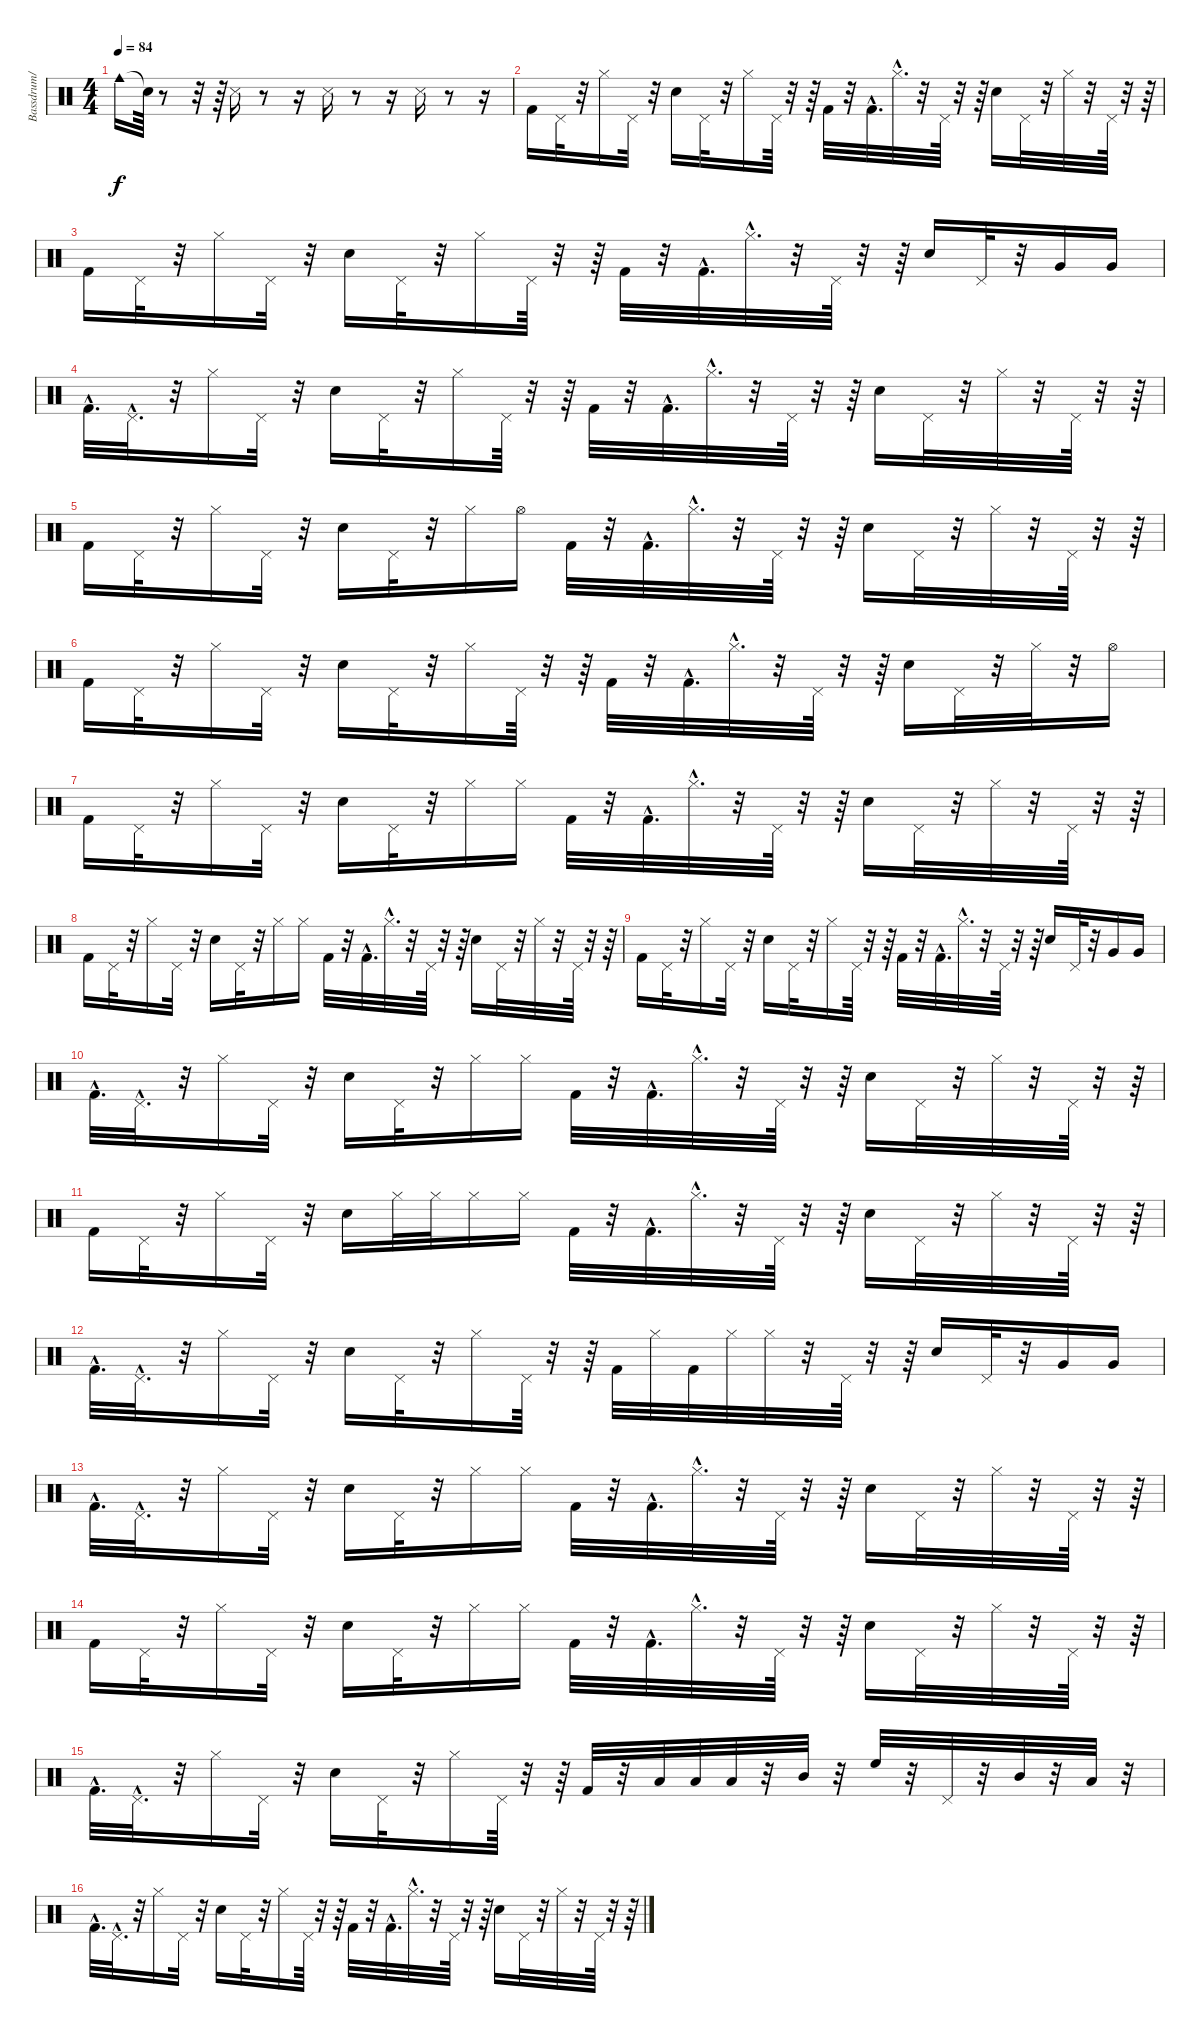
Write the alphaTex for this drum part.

\track ("Bassdrum/" "Bassdrum/") {instrument percussion}
\staff {score}
\articulation defaults
\ts (4 4)
\tempo 84
\clef neutral
\ks c "Cowbell medium (hit)".16{dy f} "Snare (hit)"{t}.64
r.8 r.32 r.64 "Snare (side stick) 3".16 r.8 r.16 "Snare (side stick) 3".16 r.8 r.16 "Snare (side stick) 3".16 r.8 r.16 |
"Kick (hit) 2".16 "Pedal Hi-Hat (hit)".32 r.32 "Hi-Hat (closed)".16 "Pedal Hi-Hat (hit)".32 r.32 "Snare (hit) 2".16 "Pedal Hi-Hat (hit)".32 r.32 "Hi-Hat (closed)".16 "Pedal Hi-Hat (hit)".64 r.32 r.64 "Kick (hit) 2".32 r.32 "Kick (hit) 2"{hac}.32{d} "Hi-Hat (closed)"{hac}.32{d} r.32 "Pedal Hi-Hat (hit)".64 r.32 r.64 "Snare (hit) 2".16 "Pedal Hi-Hat (hit)".32 r.32 "Hi-Hat (closed)".32 r.32 "Pedal Hi-Hat (hit)".64 r.32 r.64 |
"Kick (hit) 2".16 "Pedal Hi-Hat (hit)".32 r.32 "Hi-Hat (closed)".16 "Pedal Hi-Hat (hit)".32 r.32 "Snare (hit) 2".16 "Pedal Hi-Hat (hit)".32 r.32 "Hi-Hat (closed)".16 "Pedal Hi-Hat (hit)".64 r.32 r.64 "Kick (hit) 2".32 r.32 "Kick (hit) 2"{hac}.32{d} "Hi-Hat (closed)"{hac}.32{d} r.32 "Pedal Hi-Hat (hit)".64 r.32 r.64 "Snare (hit) 2".16 "Pedal Hi-Hat (hit)".32 r.32 "Very Low Tom (hit)".16 "Very Low Tom (hit)".16 |
"Kick (hit) 2"{hac}.32{d} "Pedal Hi-Hat (hit)"{hac}.32{d} r.32 "Hi-Hat (closed)".16 "Pedal Hi-Hat (hit)".32 r.32 "Snare (hit) 2".16 "Pedal Hi-Hat (hit)".32 r.32 "Hi-Hat (closed)".16 "Pedal Hi-Hat (hit)".64 r.32 r.64 "Kick (hit) 2".32 r.32 "Kick (hit) 2"{hac}.32{d} "Hi-Hat (closed)"{hac}.32{d} r.32 "Pedal Hi-Hat (hit)".64 r.32 r.64 "Snare (hit) 2".16 "Pedal Hi-Hat (hit)".32 r.32 "Hi-Hat (closed)".32 r.32 "Pedal Hi-Hat (hit)".64 r.32 r.64 |
"Kick (hit) 2".16 "Pedal Hi-Hat (hit)".32 r.32 "Hi-Hat (closed)".16 "Pedal Hi-Hat (hit)".32 r.32 "Snare (hit) 2".16 "Pedal Hi-Hat (hit)".32 r.32 "Hi-Hat (closed)".16 "Hi-Hat (open)".16 "Kick (hit) 2".32 r.32 "Kick (hit) 2"{hac}.32{d} "Hi-Hat (closed)"{hac}.32{d} r.32 "Pedal Hi-Hat (hit)".64 r.32 r.64 "Snare (hit) 2".16 "Pedal Hi-Hat (hit)".32 r.32 "Hi-Hat (closed)".32 r.32 "Pedal Hi-Hat (hit)".64 r.32 r.64 |
"Kick (hit) 2".16 "Pedal Hi-Hat (hit)".32 r.32 "Hi-Hat (closed)".16 "Pedal Hi-Hat (hit)".32 r.32 "Snare (hit) 2".16 "Pedal Hi-Hat (hit)".32 r.32 "Hi-Hat (closed)".16 "Pedal Hi-Hat (hit)".64 r.32 r.64 "Kick (hit) 2".32 r.32 "Kick (hit) 2"{hac}.32{d} "Hi-Hat (closed)"{hac}.32{d} r.32 "Pedal Hi-Hat (hit)".64 r.32 r.64 "Snare (hit) 2".16 "Pedal Hi-Hat (hit)".32 r.32 "Hi-Hat (closed)".32 r.32 "Hi-Hat (open)".16 |
"Kick (hit) 2".16 "Pedal Hi-Hat (hit)".32 r.32 "Hi-Hat (closed)".16 "Pedal Hi-Hat (hit)".32 r.32 "Snare (hit) 2".16 "Pedal Hi-Hat (hit)".32 r.32 "Hi-Hat (closed)".16 "Hi-Hat (closed)".16 "Kick (hit) 2".32 r.32 "Kick (hit) 2"{hac}.32{d} "Hi-Hat (closed)"{hac}.32{d} r.32 "Pedal Hi-Hat (hit)".64 r.32 r.64 "Snare (hit) 2".16 "Pedal Hi-Hat (hit)".32 r.32 "Hi-Hat (closed)".32 r.32 "Pedal Hi-Hat (hit)".64 r.32 r.64 |
"Kick (hit) 2".16 "Pedal Hi-Hat (hit)".32 r.32 "Hi-Hat (closed)".16 "Pedal Hi-Hat (hit)".32 r.32 "Snare (hit) 2".16 "Pedal Hi-Hat (hit)".32 r.32 "Hi-Hat (closed)".16 "Hi-Hat (closed)".16 "Kick (hit) 2".32 r.32 "Kick (hit) 2"{hac}.32{d} "Hi-Hat (closed)"{hac}.32{d} r.32 "Pedal Hi-Hat (hit)".64 r.32 r.64 "Snare (hit) 2".16 "Pedal Hi-Hat (hit)".32 r.32 "Hi-Hat (closed)".32 r.32 "Pedal Hi-Hat (hit)".64 r.32 r.64 |
"Kick (hit) 2".16 "Pedal Hi-Hat (hit)".32 r.32 "Hi-Hat (closed)".16 "Pedal Hi-Hat (hit)".32 r.32 "Snare (hit) 2".16 "Pedal Hi-Hat (hit)".32 r.32 "Hi-Hat (closed)".16 "Pedal Hi-Hat (hit)".64 r.32 r.64 "Kick (hit) 2".32 r.32 "Kick (hit) 2"{hac}.32{d} "Hi-Hat (closed)"{hac}.32{d} r.32 "Pedal Hi-Hat (hit)".64 r.32 r.64 "Snare (hit) 2".16 "Pedal Hi-Hat (hit)".32 r.32 "Very Low Tom (hit)".16 "Very Low Tom (hit)".16 |
"Kick (hit) 2"{hac}.32{d} "Pedal Hi-Hat (hit)"{hac}.32{d} r.32 "Hi-Hat (closed)".16 "Pedal Hi-Hat (hit)".32 r.32 "Snare (hit) 2".16 "Pedal Hi-Hat (hit)".32 r.32 "Hi-Hat (closed)".16 "Hi-Hat (closed)".16 "Kick (hit) 2".32 r.32 "Kick (hit) 2"{hac}.32{d} "Hi-Hat (closed)"{hac}.32{d} r.32 "Pedal Hi-Hat (hit)".64 r.32 r.64 "Snare (hit) 2".16 "Pedal Hi-Hat (hit)".32 r.32 "Hi-Hat (closed)".32 r.32 "Pedal Hi-Hat (hit)".64 r.32 r.64 |
"Kick (hit) 2".16 "Pedal Hi-Hat (hit)".32 r.32 "Hi-Hat (closed)".16 "Pedal Hi-Hat (hit)".32 r.32 "Snare (hit) 2".16 "Hi-Hat (closed)".32 "Hi-Hat (closed)".32 "Hi-Hat (closed)".16 "Hi-Hat (closed)".16 "Kick (hit) 2".32 r.32 "Kick (hit) 2"{hac}.32{d} "Hi-Hat (closed)"{hac}.32{d} r.32 "Pedal Hi-Hat (hit)".64 r.32 r.64 "Snare (hit) 2".16 "Pedal Hi-Hat (hit)".32 r.32 "Hi-Hat (closed)".32 r.32 "Pedal Hi-Hat (hit)".64 r.32 r.64 |
"Kick (hit) 2"{hac}.32{d} "Pedal Hi-Hat (hit)"{hac}.32{d} r.32 "Hi-Hat (closed)".16 "Pedal Hi-Hat (hit)".32 r.32 "Snare (hit) 2".16 "Pedal Hi-Hat (hit)".32 r.32 "Hi-Hat (closed)".16 "Pedal Hi-Hat (hit)".64 r.32 r.64 "Kick (hit) 2".32 "Hi-Hat (closed)".32 "Kick (hit) 2".32 "Hi-Hat (closed)".32 "Hi-Hat (closed)".32 r.32 "Pedal Hi-Hat (hit)".64 r.32 r.64 "Snare (hit) 2".16 "Pedal Hi-Hat (hit)".32 r.32 "Very Low Tom (hit)".16 "Very Low Tom (hit)".16 |
"Kick (hit) 2"{hac}.32{d} "Pedal Hi-Hat (hit)"{hac}.32{d} r.32 "Hi-Hat (closed)".16 "Pedal Hi-Hat (hit)".32 r.32 "Snare (hit) 2".16 "Pedal Hi-Hat (hit)".32 r.32 "Hi-Hat (closed)".16 "Hi-Hat (closed)".16 "Kick (hit) 2".32 r.32 "Kick (hit) 2"{hac}.32{d} "Hi-Hat (closed)"{hac}.32{d} r.32 "Pedal Hi-Hat (hit)".64 r.32 r.64 "Snare (hit) 2".16 "Pedal Hi-Hat (hit)".32 r.32 "Hi-Hat (closed)".32 r.32 "Pedal Hi-Hat (hit)".64 r.32 r.64 |
"Kick (hit) 2".16 "Pedal Hi-Hat (hit)".32 r.32 "Hi-Hat (closed)".16 "Pedal Hi-Hat (hit)".32 r.32 "Snare (hit) 2".16 "Pedal Hi-Hat (hit)".32 r.32 "Hi-Hat (closed)".16 "Hi-Hat (closed)".16 "Kick (hit) 2".32 r.32 "Kick (hit) 2"{hac}.32{d} "Hi-Hat (closed)"{hac}.32{d} r.32 "Pedal Hi-Hat (hit)".64 r.32 r.64 "Snare (hit) 2".16 "Pedal Hi-Hat (hit)".32 r.32 "Hi-Hat (closed)".32 r.32 "Pedal Hi-Hat (hit)".64 r.32 r.64 |
"Kick (hit) 2"{hac}.32{d} "Pedal Hi-Hat (hit)"{hac}.32{d} r.32 "Hi-Hat (closed)".16 "Pedal Hi-Hat (hit)".32 r.32 "Snare (hit) 2".16 "Pedal Hi-Hat (hit)".32 r.32 "Hi-Hat (closed)".16 "Pedal Hi-Hat (hit)".64 r.32 r.64 "Kick (hit) 2".32 r.32 "Low Tom (hit)".32 "Low Tom (hit)".32 "Low Tom (hit)".32 r.32 "Mid Tom (hit)".32 r.32 "High Floor Tom (hit)".32 r.32 "Pedal Hi-Hat (hit)".32 r.32 "Mid Tom (hit)".32 r.32 "Low Tom (hit)".32 r.32 |
"Kick (hit) 2"{hac}.32{d} "Pedal Hi-Hat (hit)"{hac}.32{d} r.32 "Hi-Hat (closed)".16 "Pedal Hi-Hat (hit)".32 r.32 "Snare (hit) 2".16 "Pedal Hi-Hat (hit)".32 r.32 "Hi-Hat (closed)".16 "Pedal Hi-Hat (hit)".64 r.32 r.64 "Kick (hit) 2".32 r.32 "Kick (hit) 2"{hac}.32{d} "Hi-Hat (closed)"{hac}.32{d} r.32 "Pedal Hi-Hat (hit)".64 r.32 r.64 "Snare (hit) 2".16 "Pedal Hi-Hat (hit)".32 r.32 "Hi-Hat (closed)".32 r.32 "Pedal Hi-Hat (hit)".64 r.32 r.64
